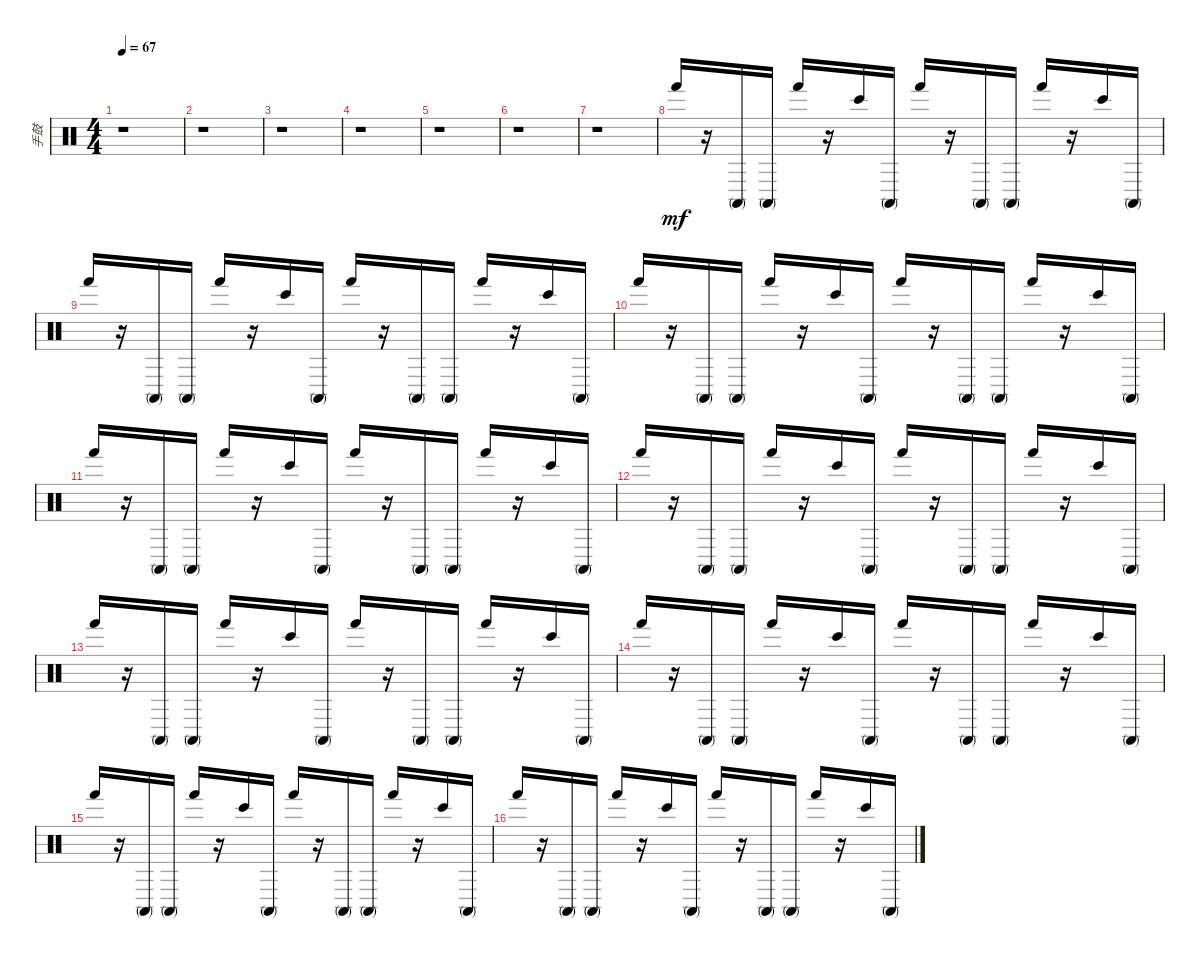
\track ("手鼓" "手鼓") {instrument percussion}
\staff {score}
\articulation defaults
\ts (4 4)
\tempo 67
\clef neutral
\ks c
r.1{dy mf} |
r.1 |
r.1 |
r.1 |
r.1 |
r.1 |
r.1 |
"Hand (hit)".16 r.16 "Conga high (mute)".16 "Conga high (mute)".16 "Hand (hit)".16 r.16 "Bongo High (hit)".16 "Conga high (mute)".16 "Hand (hit)".16 r.16 "Conga high (mute)".16 "Conga high (mute)".16 "Hand (hit)".16 r.16 "Bongo High (hit)".16 "Conga high (mute)".16 |
"Hand (hit)".16 r.16 "Conga high (mute)".16 "Conga high (mute)".16 "Hand (hit)".16 r.16 "Bongo High (hit)".16 "Conga high (mute)".16 "Hand (hit)".16 r.16 "Conga high (mute)".16 "Conga high (mute)".16 "Hand (hit)".16 r.16 "Bongo High (hit)".16 "Conga high (mute)".16 |
"Hand (hit)".16 r.16 "Conga high (mute)".16 "Conga high (mute)".16 "Hand (hit)".16 r.16 "Bongo High (hit)".16 "Conga high (mute)".16 "Hand (hit)".16 r.16 "Conga high (mute)".16 "Conga high (mute)".16 "Hand (hit)".16 r.16 "Bongo High (hit)".16 "Conga high (mute)".16 |
"Hand (hit)".16 r.16 "Conga high (mute)".16 "Conga high (mute)".16 "Hand (hit)".16 r.16 "Bongo High (hit)".16 "Conga high (mute)".16 "Hand (hit)".16 r.16 "Conga high (mute)".16 "Conga high (mute)".16 "Hand (hit)".16 r.16 "Bongo High (hit)".16 "Conga high (mute)".16 |
"Hand (hit)".16 r.16 "Conga high (mute)".16 "Conga high (mute)".16 "Hand (hit)".16 r.16 "Bongo High (hit)".16 "Conga high (mute)".16 "Hand (hit)".16 r.16 "Conga high (mute)".16 "Conga high (mute)".16 "Hand (hit)".16 r.16 "Bongo High (hit)".16 "Conga high (mute)".16 |
"Hand (hit)".16 r.16 "Conga high (mute)".16 "Conga high (mute)".16 "Hand (hit)".16 r.16 "Bongo High (hit)".16 "Conga high (mute)".16 "Hand (hit)".16 r.16 "Conga high (mute)".16 "Conga high (mute)".16 "Hand (hit)".16 r.16 "Bongo High (hit)".16 "Conga high (mute)".16 |
"Hand (hit)".16 r.16 "Conga high (mute)".16 "Conga high (mute)".16 "Hand (hit)".16 r.16 "Bongo High (hit)".16 "Conga high (mute)".16 "Hand (hit)".16 r.16 "Conga high (mute)".16 "Conga high (mute)".16 "Hand (hit)".16 r.16 "Bongo High (hit)".16 "Conga high (mute)".16 |
"Hand (hit)".16 r.16 "Conga high (mute)".16 "Conga high (mute)".16 "Hand (hit)".16 r.16 "Bongo High (hit)".16 "Conga high (mute)".16 "Hand (hit)".16 r.16 "Conga high (mute)".16 "Conga high (mute)".16 "Hand (hit)".16 r.16 "Bongo High (hit)".16 "Conga high (mute)".16 |
"Hand (hit)".16 r.16 "Conga high (mute)".16 "Conga high (mute)".16 "Hand (hit)".16 r.16 "Bongo High (hit)".16 "Conga high (mute)".16 "Hand (hit)".16 r.16 "Conga high (mute)".16 "Conga high (mute)".16 "Hand (hit)".16 r.16 "Bongo High (hit)".16 "Conga high (mute)".16
